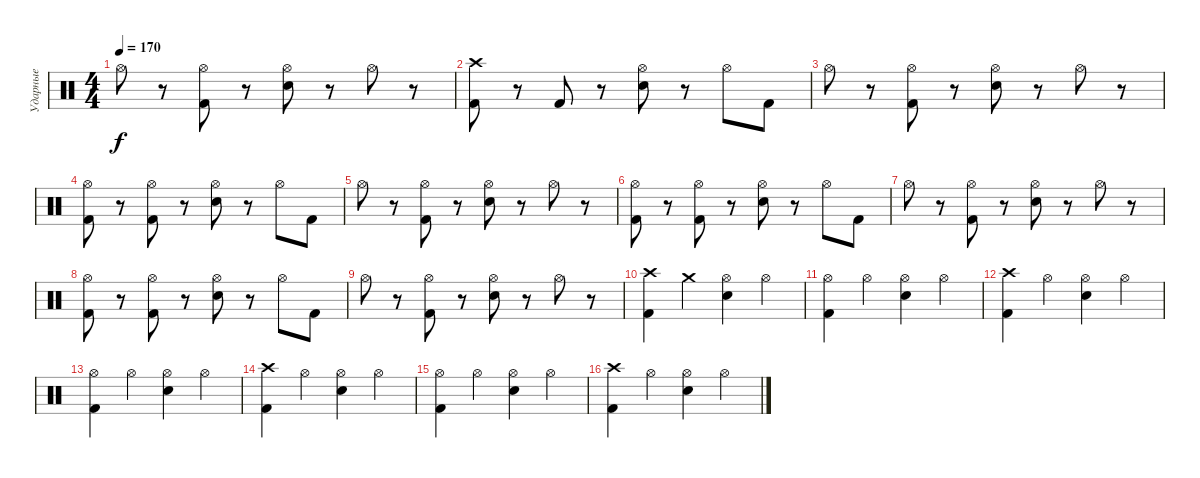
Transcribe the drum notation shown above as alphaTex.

\track ("Ударные" "Ударные") {instrument percussion}
\staff {score}
\articulation defaults
\ts (4 4)
\tempo 170
\clef neutral
\ks c "Hi-Hat (open)".8{dy f}
r.8 ("Hi-Hat (open)" "Kick (hit) 2").8 r.8 ("Hi-Hat (open)" "Electric Snare (hit)").8 r.8 "Hi-Hat (open)".8 r.8 |
("Crash high (hit)" "Kick (hit) 2").8 r.8 "Kick (hit) 2".8 r.8 ("Hi-Hat (open)" "Electric Snare (hit)").8 r.8 "Hi-Hat (open)".8 "Kick (hit) 2".8 |
"Hi-Hat (open)".8 r.8 ("Hi-Hat (open)" "Kick (hit) 2").8 r.8 ("Hi-Hat (open)" "Electric Snare (hit)").8 r.8 "Hi-Hat (open)".8 r.8 |
("Hi-Hat (open)" "Kick (hit) 2").8 r.8 ("Hi-Hat (open)" "Kick (hit) 2").8 r.8 ("Hi-Hat (open)" "Electric Snare (hit)").8 r.8 "Hi-Hat (open)".8 "Kick (hit) 2".8 |
"Hi-Hat (open)".8 r.8 ("Hi-Hat (open)" "Kick (hit) 2").8 r.8 ("Hi-Hat (open)" "Electric Snare (hit)").8 r.8 "Hi-Hat (open)".8 r.8 |
("Hi-Hat (open)" "Kick (hit) 2").8 r.8 ("Hi-Hat (open)" "Kick (hit) 2").8 r.8 ("Hi-Hat (open)" "Electric Snare (hit)").8 r.8 "Hi-Hat (open)".8 "Kick (hit) 2".8 |
"Hi-Hat (open)".8 r.8 ("Hi-Hat (open)" "Kick (hit) 2").8 r.8 ("Hi-Hat (open)" "Electric Snare (hit)").8 r.8 "Hi-Hat (open)".8 r.8 |
("Hi-Hat (open)" "Kick (hit) 2").8 r.8 ("Hi-Hat (open)" "Kick (hit) 2").8 r.8 ("Hi-Hat (open)" "Electric Snare (hit)").8 r.8 "Hi-Hat (open)".8 "Kick (hit) 2".8 |
"Hi-Hat (open)".8 r.8 ("Hi-Hat (open)" "Kick (hit) 2").8 r.8 ("Hi-Hat (open)" "Electric Snare (hit)").8 r.8 "Hi-Hat (open)".8 r.8 |
("Crash high (hit)" "Kick (hit) 2").4 "Crash medium (hit)".4 ("Hi-Hat (open)" "Electric Snare (hit)").4 "Hi-Hat (open)".4 |
("Hi-Hat (open)" "Kick (hit) 2").4 "Hi-Hat (open)".4 ("Hi-Hat (open)" "Electric Snare (hit)").4 "Hi-Hat (open)".4 |
("Crash high (hit)" "Kick (hit) 2").4 "Hi-Hat (open)".4 ("Hi-Hat (open)" "Electric Snare (hit)").4 "Hi-Hat (open)".4 |
("Hi-Hat (open)" "Kick (hit) 2").4 "Hi-Hat (open)".4 ("Hi-Hat (open)" "Electric Snare (hit)").4 "Hi-Hat (open)".4 |
("Crash high (hit)" "Kick (hit) 2").4 "Hi-Hat (open)".4 ("Hi-Hat (open)" "Electric Snare (hit)").4 "Hi-Hat (open)".4 |
("Hi-Hat (open)" "Kick (hit) 2").4 "Hi-Hat (open)".4 ("Hi-Hat (open)" "Electric Snare (hit)").4 "Hi-Hat (open)".4 |
("Crash high (hit)" "Kick (hit) 2").4 "Hi-Hat (open)".4 ("Hi-Hat (open)" "Electric Snare (hit)").4 "Hi-Hat (open)".4
